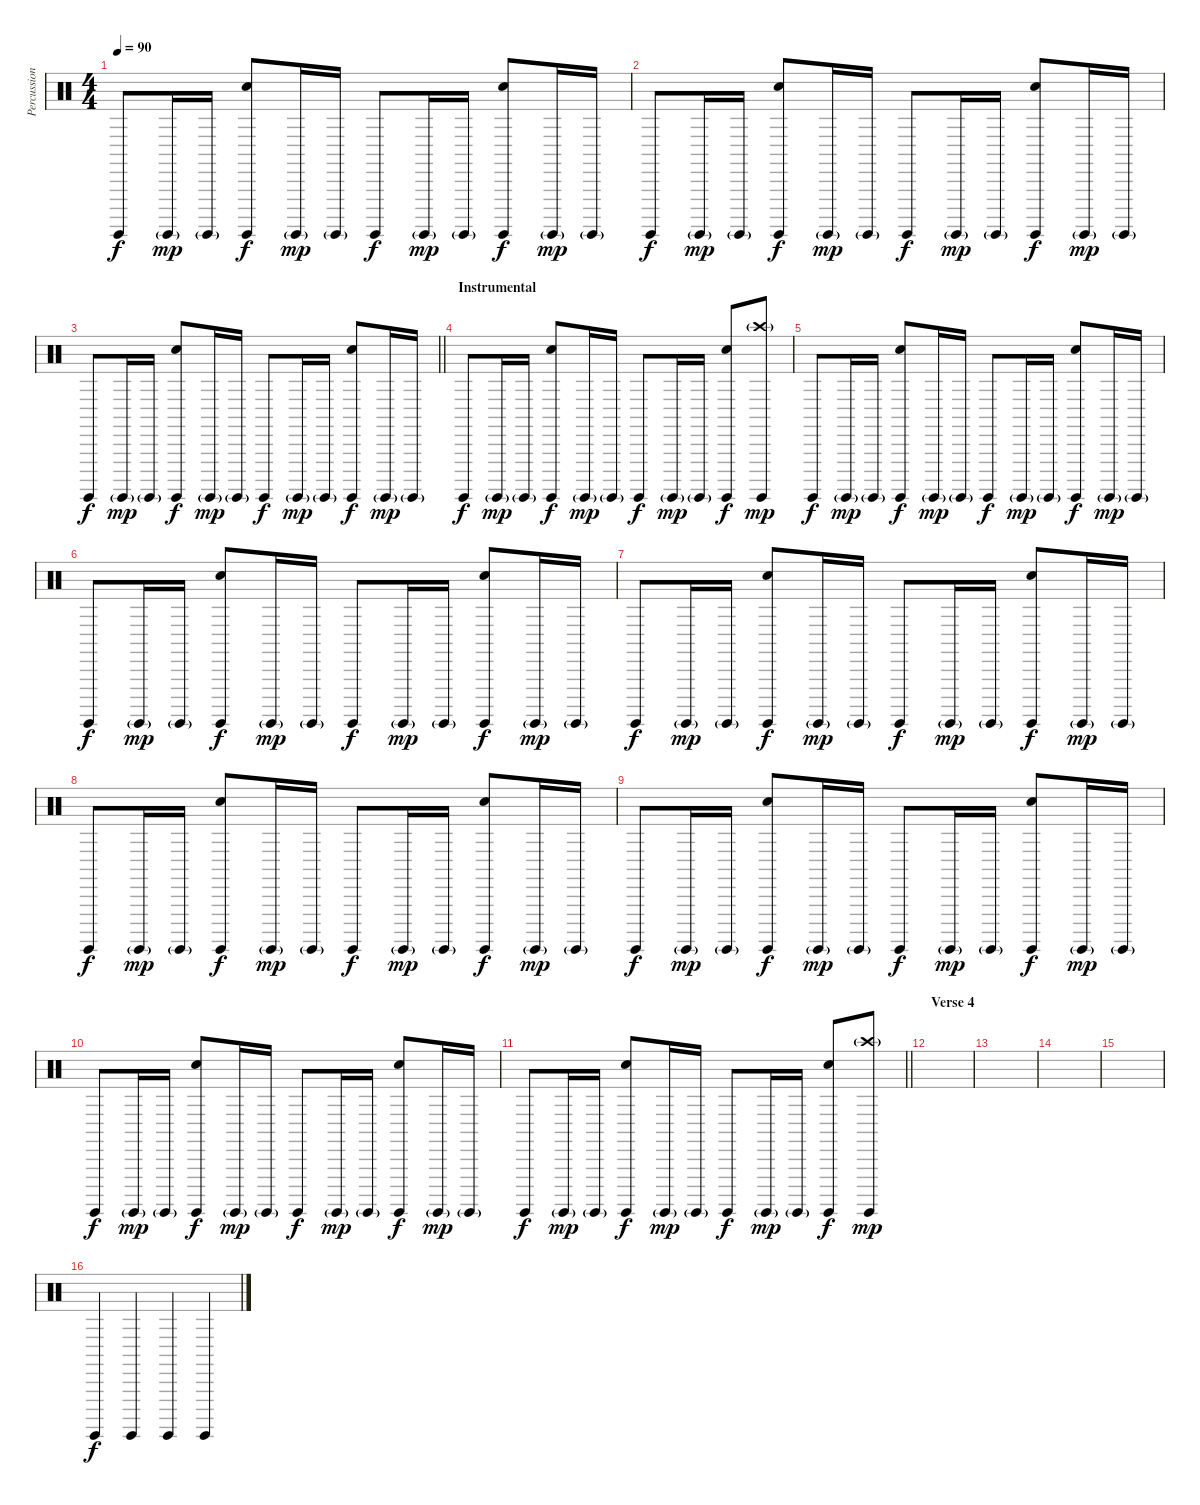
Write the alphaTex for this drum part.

\track ("Percussion" "Percussion") {instrument percussion}
\staff {score}
\articulation defaults
\ts (4 4)
\tempo 90
\clef neutral
\ks c "Surdo (hit)".8{dy f} "Surdo (hit)"{g}.16{dy mp} "Surdo (hit)"{g}.16
("Surdo (hit)" "Hand Clap (hit)").8{dy f} "Surdo (hit)"{g}.16{dy mp} "Surdo (hit)"{g}.16 "Surdo (hit)".8{dy f} "Surdo (hit)"{g}.16{dy mp} "Surdo (hit)"{g}.16 ("Surdo (hit)" "Hand Clap (hit)").8{dy f} "Surdo (hit)"{g}.16{dy mp} "Surdo (hit)"{g}.16 |
"Surdo (hit)".8{dy f} "Surdo (hit)"{g}.16{dy mp} "Surdo (hit)"{g}.16 ("Surdo (hit)" "Hand Clap (hit)").8{dy f} "Surdo (hit)"{g}.16{dy mp} "Surdo (hit)"{g}.16 "Surdo (hit)".8{dy f} "Surdo (hit)"{g}.16{dy mp} "Surdo (hit)"{g}.16 ("Surdo (hit)" "Hand Clap (hit)").8{dy f} "Surdo (hit)"{g}.16{dy mp} "Surdo (hit)"{g}.16 |
\barLineRight lightlight "Surdo (hit)".8{dy f} "Surdo (hit)"{g}.16{dy mp} "Surdo (hit)"{g}.16
("Surdo (hit)" "Hand Clap (hit)").8{dy f} "Surdo (hit)"{g}.16{dy mp} "Surdo (hit)"{g}.16 "Surdo (hit)".8{dy f} "Surdo (hit)"{g}.16{dy mp} "Surdo (hit)"{g}.16 ("Surdo (hit)" "Hand Clap (hit)").8{dy f} "Surdo (hit)"{g}.16{dy mp} "Surdo (hit)"{g}.16 |
\section ("" "Instrumental")
"Surdo (hit)".8{dy f} "Surdo (hit)"{g}.16{dy mp} "Surdo (hit)"{g}.16 ("Surdo (hit)" "Hand Clap (hit)").8{dy f} "Surdo (hit)"{g}.16{dy mp} "Surdo (hit)"{g}.16 "Surdo (hit)".8{dy f} "Surdo (hit)"{g}.16{dy mp} "Surdo (hit)"{g}.16 ("Surdo (hit)" "Hand Clap (hit)").8{dy f} ("Surdo (hit)" "Crash high (hit)"{g}).8{dy mp} |
"Surdo (hit)".8{dy f} "Surdo (hit)"{g}.16{dy mp} "Surdo (hit)"{g}.16 ("Surdo (hit)" "Hand Clap (hit)").8{dy f} "Surdo (hit)"{g}.16{dy mp} "Surdo (hit)"{g}.16 "Surdo (hit)".8{dy f} "Surdo (hit)"{g}.16{dy mp} "Surdo (hit)"{g}.16 ("Surdo (hit)" "Hand Clap (hit)").8{dy f} "Surdo (hit)"{g}.16{dy mp} "Surdo (hit)"{g}.16 |
"Surdo (hit)".8{dy f} "Surdo (hit)"{g}.16{dy mp} "Surdo (hit)"{g}.16 ("Surdo (hit)" "Hand Clap (hit)").8{dy f} "Surdo (hit)"{g}.16{dy mp} "Surdo (hit)"{g}.16 "Surdo (hit)".8{dy f} "Surdo (hit)"{g}.16{dy mp} "Surdo (hit)"{g}.16 ("Surdo (hit)" "Hand Clap (hit)").8{dy f} "Surdo (hit)"{g}.16{dy mp} "Surdo (hit)"{g}.16 |
"Surdo (hit)".8{dy f} "Surdo (hit)"{g}.16{dy mp} "Surdo (hit)"{g}.16 ("Surdo (hit)" "Hand Clap (hit)").8{dy f} "Surdo (hit)"{g}.16{dy mp} "Surdo (hit)"{g}.16 "Surdo (hit)".8{dy f} "Surdo (hit)"{g}.16{dy mp} "Surdo (hit)"{g}.16 ("Surdo (hit)" "Hand Clap (hit)").8{dy f} "Surdo (hit)"{g}.16{dy mp} "Surdo (hit)"{g}.16 |
"Surdo (hit)".8{dy f} "Surdo (hit)"{g}.16{dy mp} "Surdo (hit)"{g}.16 ("Surdo (hit)" "Hand Clap (hit)").8{dy f} "Surdo (hit)"{g}.16{dy mp} "Surdo (hit)"{g}.16 "Surdo (hit)".8{dy f} "Surdo (hit)"{g}.16{dy mp} "Surdo (hit)"{g}.16 ("Surdo (hit)" "Hand Clap (hit)").8{dy f} "Surdo (hit)"{g}.16{dy mp} "Surdo (hit)"{g}.16 |
"Surdo (hit)".8{dy f} "Surdo (hit)"{g}.16{dy mp} "Surdo (hit)"{g}.16 ("Surdo (hit)" "Hand Clap (hit)").8{dy f} "Surdo (hit)"{g}.16{dy mp} "Surdo (hit)"{g}.16 "Surdo (hit)".8{dy f} "Surdo (hit)"{g}.16{dy mp} "Surdo (hit)"{g}.16 ("Surdo (hit)" "Hand Clap (hit)").8{dy f} "Surdo (hit)"{g}.16{dy mp} "Surdo (hit)"{g}.16 |
"Surdo (hit)".8{dy f} "Surdo (hit)"{g}.16{dy mp} "Surdo (hit)"{g}.16 ("Surdo (hit)" "Hand Clap (hit)").8{dy f} "Surdo (hit)"{g}.16{dy mp} "Surdo (hit)"{g}.16 "Surdo (hit)".8{dy f} "Surdo (hit)"{g}.16{dy mp} "Surdo (hit)"{g}.16 ("Surdo (hit)" "Hand Clap (hit)").8{dy f} "Surdo (hit)"{g}.16{dy mp} "Surdo (hit)"{g}.16 |
\barLineRight lightlight "Surdo (hit)".8{dy f} "Surdo (hit)"{g}.16{dy mp} "Surdo (hit)"{g}.16
("Surdo (hit)" "Hand Clap (hit)").8{dy f} "Surdo (hit)"{g}.16{dy mp} "Surdo (hit)"{g}.16 "Surdo (hit)".8{dy f} "Surdo (hit)"{g}.16{dy mp} "Surdo (hit)"{g}.16 ("Surdo (hit)" "Hand Clap (hit)").8{dy f} ("Surdo (hit)" "Crash high (hit)"{g}).8{dy mp} |
\section ("" "Verse 4")
|
|
|
|
"Surdo (hit)".4{dy f} "Surdo (hit)".4 "Surdo (hit)".4 "Surdo (hit)".4
